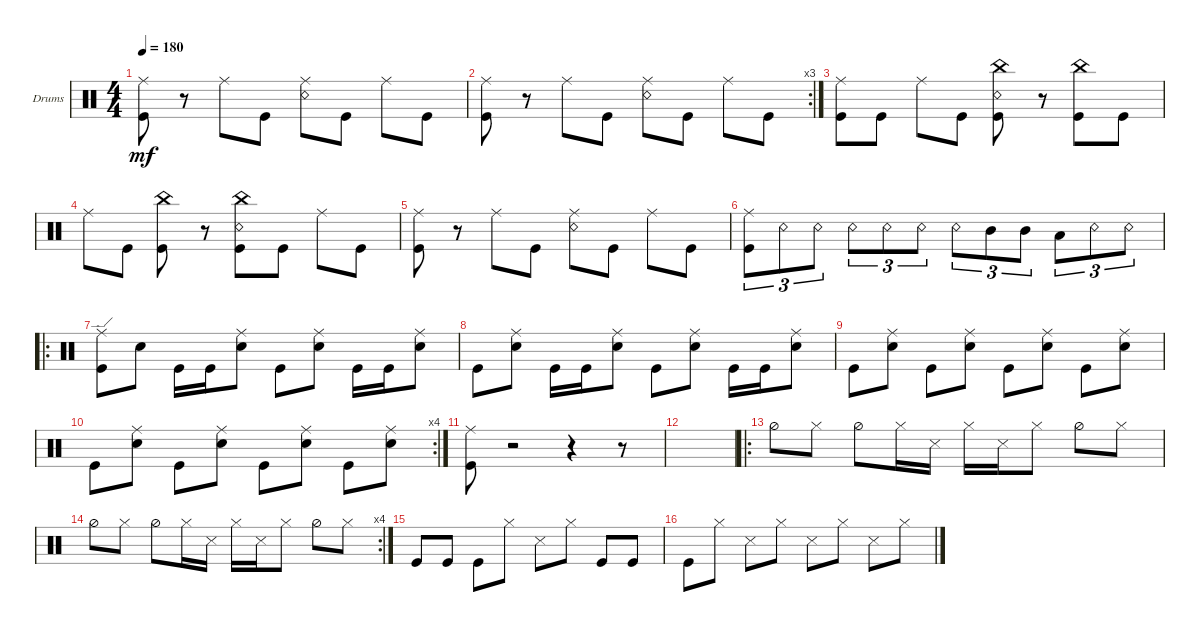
\defaultSystemsLayout 4
\bracketExtendMode groupsimilarinstruments
\firstSystemTrackNameOrientation horizontal
\otherSystemsTrackNameOrientation horizontal
\track ("Drumkit" "Drums") {instrument percussion}
\staff {score}
\articulation defaults
\ts (4 4)
\tempo 180
\clef neutral
\ks c
("Kick (hit)" "Ride (middle)").8{dy mf} r.8 "Ride (middle)".8 "Kick (hit)".8 ("Ride (middle)" "Snare (rim shot)").8 "Kick (hit)".8 "Ride (middle)".8 "Kick (hit)".8 |
\rc 3
("Kick (hit)" "Ride (middle)").8 r.8 "Ride (middle)".8 "Kick (hit)".8 ("Ride (middle)" "Snare (rim shot)").8 "Kick (hit)".8 "Ride (middle)".8 "Kick (hit)".8 |
("Kick (hit)" "Ride (middle)").8 "Kick (hit)".8 "Ride (middle)".8 "Kick (hit)".8 ("Kick (hit)" "Snare (rim shot)" "China (hit)").8 r.8 ("Kick (hit)" "China (hit)").8 "Kick (hit)".8 |
"Ride (middle)".8 "Kick (hit)".8 ("Kick (hit)" "China (hit)").8 r.8 ("Kick (hit)" "Snare (rim shot)" "China (hit)").8 "Kick (hit)".8 "Ride (middle)".8 "Kick (hit)".8 |
("Kick (hit)" "Ride (middle)").8 r.8 "Ride (middle)".8 "Kick (hit)".8 ("Ride (middle)" "Snare (rim shot)").8 "Kick (hit)".8 "Ride (middle)".8 "Kick (hit)".8 |
("Ride (middle)" "Kick (hit)").8{tu (3 2)} "Snare (rim shot)".8{tu (3 2)} "Snare (rim shot)".8{tu (3 2)} "Snare (rim shot)".8{tu (3 2)} "Snare (rim shot)".8{tu (3 2)} "Snare (rim shot)".8{tu (3 2)} "Snare (rim shot)".8{tu (3 2)} "Mid Tom (hit)".8{tu (3 2)} "Mid Tom (hit)".8{tu (3 2)} "Low Tom (hit)".8{tu (3 2)} "Snare (rim shot)".8{tu (3 2)} "Snare (rim shot)".8{tu (3 2)} |
\ro
("Kick (hit)" "Ride (edge)").8 "Snare (hit) 2".8 "Kick (hit)".16 "Kick (hit)".16 ("Snare (hit) 2" "Ride (middle)").8 "Kick (hit)".8 ("Snare (hit) 2" "Ride (middle)").8 "Kick (hit)".16 "Kick (hit)".16 ("Snare (hit) 2" "Ride (middle)").8 |
"Kick (hit)".8 ("Snare (hit) 2" "Ride (middle)").8 "Kick (hit)".16 "Kick (hit)".16 ("Snare (hit) 2" "Ride (middle)").8 "Kick (hit)".8 ("Snare (hit) 2" "Ride (middle)").8 "Kick (hit)".16 "Kick (hit)".16 ("Snare (hit) 2" "Ride (middle)").8 |
"Kick (hit)".8 ("Snare (hit) 2" "Ride (middle)").8 "Kick (hit)".8 ("Snare (hit) 2" "Ride (middle)").8 "Kick (hit)".8 ("Snare (hit) 2" "Ride (middle)").8 "Kick (hit)".8 ("Snare (hit) 2" "Ride (middle)").8 |
\rc 4 "Kick (hit)".8
("Snare (hit) 2" "Ride (middle)").8 "Kick (hit)".8 ("Snare (hit) 2" "Ride (middle)").8 "Kick (hit)".8 ("Snare (hit) 2" "Ride (middle)").8 "Kick (hit)".8 ("Snare (hit) 2" "Ride (middle)").8 |
("Ride (middle)" "Kick (hit)").8 r.2 r.4 r.8 |
|
\ro "Hi-Hat (half)".8 "Hi-Hat (closed)".8 "Hi-Hat (half)".8 "Hi-Hat (closed)".16 "Snare (side stick) 3".16 "Hi-Hat (closed)".16 "Snare (side stick) 3".16 "Hi-Hat (closed)".8 "Hi-Hat (half)".8 "Hi-Hat (closed)".8
|
\rc 4 "Hi-Hat (half)".8 "Hi-Hat (closed)".8 "Hi-Hat (half)".8 "Hi-Hat (closed)".16 "Snare (side stick) 3".16 "Hi-Hat (closed)".16 "Snare (side stick) 3".16 "Hi-Hat (closed)".8 "Hi-Hat (half)".8 "Hi-Hat (closed)".8
|
"Kick (hit)".8 "Kick (hit)".8 "Kick (hit)".8 "Hi-Hat (closed)".8 "Snare (side stick) 3".8 "Hi-Hat (closed)".8 "Kick (hit)".8 "Kick (hit)".8 |
"Kick (hit)".8 "Hi-Hat (closed)".8 "Snare (side stick) 3".8 "Hi-Hat (closed)".8 "Snare (side stick) 3".8 "Hi-Hat (closed)".8 "Snare (side stick) 3".8 "Hi-Hat (closed)".8
